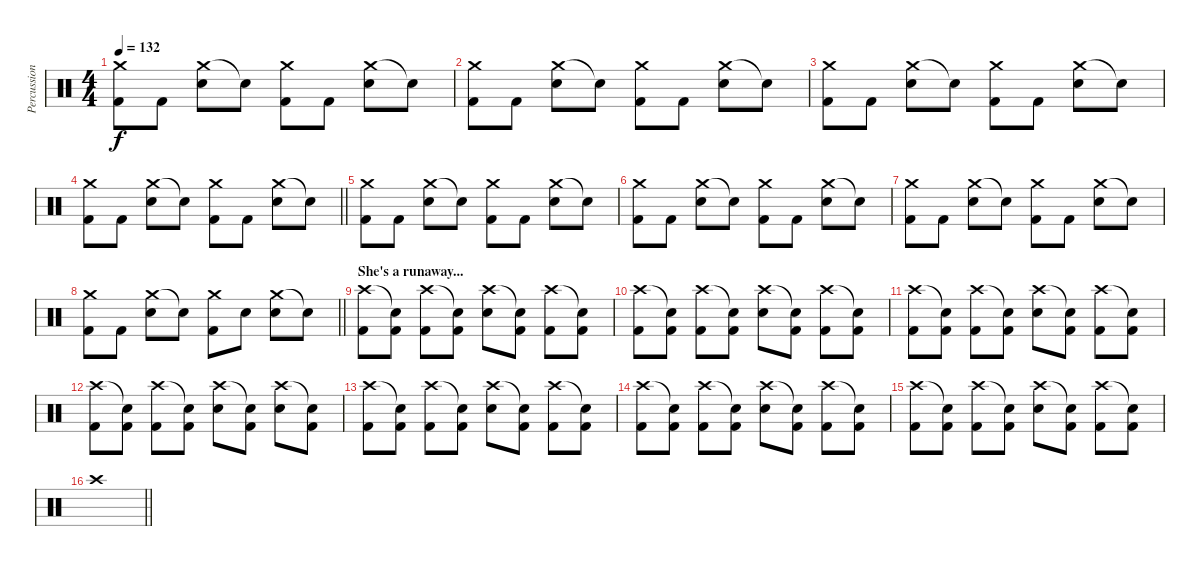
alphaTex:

\track ("Percussioni" "Percussion") {instrument percussion}
\staff {score}
\articulation defaults
\ts (4 4)
\tempo 132
\clef neutral
\ks c
("Crash medium (hit)" "Kick (hit) 2").8{dy f} "Kick (hit) 2".8 ("Crash medium (hit)" "Snare (hit) 2").8 "Snare (hit)"{t}.8 ("Crash medium (hit)" "Kick (hit) 2").8 "Kick (hit) 2".8 ("Crash medium (hit)" "Snare (hit) 2").8 "Snare (hit)"{t}.8 |
("Crash medium (hit)" "Kick (hit) 2").8 "Kick (hit) 2".8 ("Crash medium (hit)" "Snare (hit) 2").8 "Snare (hit)"{t}.8 ("Crash medium (hit)" "Kick (hit) 2").8 "Kick (hit) 2".8 ("Crash medium (hit)" "Snare (hit) 2").8 "Snare (hit)"{t}.8 |
("Crash medium (hit)" "Kick (hit) 2").8 "Kick (hit) 2".8 ("Crash medium (hit)" "Snare (hit) 2").8 "Snare (hit)"{t}.8 ("Crash medium (hit)" "Kick (hit) 2").8 "Kick (hit) 2".8 ("Crash medium (hit)" "Snare (hit) 2").8 "Snare (hit)"{t}.8 |
\barLineRight lightlight
("Crash medium (hit)" "Kick (hit) 2").8 "Kick (hit) 2".8 ("Crash medium (hit)" "Snare (hit) 2").8 "Snare (hit)"{t}.8 ("Crash medium (hit)" "Kick (hit) 2").8 "Kick (hit) 2".8 ("Crash medium (hit)" "Snare (hit) 2").8 "Snare (hit)"{t}.8 |
\section ("" "")
("Crash medium (hit)" "Kick (hit) 2").8 "Kick (hit) 2".8 ("Crash medium (hit)" "Snare (hit) 2").8 "Snare (hit)"{t}.8 ("Crash medium (hit)" "Kick (hit) 2").8 "Kick (hit) 2".8 ("Crash medium (hit)" "Snare (hit) 2").8 "Snare (hit)"{t}.8 |
("Crash medium (hit)" "Kick (hit) 2").8 "Kick (hit) 2".8 ("Crash medium (hit)" "Snare (hit) 2").8 "Snare (hit)"{t}.8 ("Crash medium (hit)" "Kick (hit) 2").8 "Kick (hit) 2".8 ("Crash medium (hit)" "Snare (hit) 2").8 "Snare (hit)"{t}.8 |
("Crash medium (hit)" "Kick (hit) 2").8 "Kick (hit) 2".8 ("Crash medium (hit)" "Snare (hit) 2").8 "Snare (hit)"{t}.8 ("Crash medium (hit)" "Kick (hit) 2").8 "Kick (hit) 2".8 ("Crash medium (hit)" "Snare (hit) 2").8 "Snare (hit)"{t}.8 |
\barLineRight lightlight
("Crash medium (hit)" "Kick (hit) 2").8 "Kick (hit) 2".8 ("Crash medium (hit)" "Snare (hit) 2").8 "Snare (hit)"{t}.8 ("Crash medium (hit)" "Kick (hit) 2").8 "Snare (hit) 2".8 ("Crash medium (hit)" "Snare (hit) 2").8 "Snare (hit)"{t}.8 |
\section ("" "She's a runaway...")
("Crash high (hit)" "Kick (hit) 2").8 ("Snare (hit)"{t} "Kick (hit) 2").8 ("Crash high (hit)" "Kick (hit) 2").8 ("Snare (hit)"{t} "Kick (hit) 2").8 ("Crash high (hit)" "Snare (hit) 2").8 ("Snare (hit)"{t} "Kick (hit) 2").8 ("Crash high (hit)" "Kick (hit) 2").8 ("Snare (hit)"{t} "Kick (hit) 2").8 |
("Crash high (hit)" "Kick (hit) 2").8 ("Snare (hit)"{t} "Kick (hit) 2").8 ("Crash high (hit)" "Kick (hit) 2").8 ("Snare (hit)"{t} "Kick (hit) 2").8 ("Crash high (hit)" "Snare (hit) 2").8 ("Snare (hit)"{t} "Kick (hit) 2").8 ("Crash high (hit)" "Kick (hit) 2").8 ("Snare (hit)"{t} "Kick (hit) 2").8 |
("Crash high (hit)" "Kick (hit) 2").8 ("Snare (hit)"{t} "Kick (hit) 2").8 ("Crash high (hit)" "Kick (hit) 2").8 ("Snare (hit)"{t} "Kick (hit) 2").8 ("Crash high (hit)" "Snare (hit) 2").8 ("Snare (hit)"{t} "Kick (hit) 2").8 ("Crash high (hit)" "Kick (hit) 2").8 ("Snare (hit)"{t} "Kick (hit) 2").8 |
("Crash high (hit)" "Kick (hit) 2").8 ("Snare (hit)"{t} "Kick (hit) 2").8 ("Crash high (hit)" "Kick (hit) 2").8 ("Snare (hit)"{t} "Kick (hit) 2").8 ("Crash high (hit)" "Snare (hit) 2").8 ("Snare (hit)"{t} "Kick (hit) 2").8 ("Crash high (hit)" "Snare (hit) 2").8 ("Snare (hit)"{t} "Kick (hit) 2").8 |
("Crash high (hit)" "Kick (hit) 2").8 ("Snare (hit)"{t} "Kick (hit) 2").8 ("Crash high (hit)" "Kick (hit) 2").8 ("Snare (hit)"{t} "Kick (hit) 2").8 ("Crash high (hit)" "Snare (hit) 2").8 ("Snare (hit)"{t} "Kick (hit) 2").8 ("Crash high (hit)" "Kick (hit) 2").8 ("Snare (hit)"{t} "Kick (hit) 2").8 |
("Crash high (hit)" "Kick (hit) 2").8 ("Snare (hit)"{t} "Kick (hit) 2").8 ("Crash high (hit)" "Kick (hit) 2").8 ("Snare (hit)"{t} "Kick (hit) 2").8 ("Crash high (hit)" "Snare (hit) 2").8 ("Snare (hit)"{t} "Kick (hit) 2").8 ("Crash high (hit)" "Kick (hit) 2").8 ("Snare (hit)"{t} "Kick (hit) 2").8 |
("Crash high (hit)" "Kick (hit) 2").8 ("Snare (hit)"{t} "Kick (hit) 2").8 ("Crash high (hit)" "Kick (hit) 2").8 ("Snare (hit)"{t} "Kick (hit) 2").8 ("Crash high (hit)" "Snare (hit) 2").8 ("Snare (hit)"{t} "Kick (hit) 2").8 ("Crash high (hit)" "Kick (hit) 2").8 ("Snare (hit)"{t} "Kick (hit) 2").8 |
\barLineRight lightlight "Crash high (hit)".1
